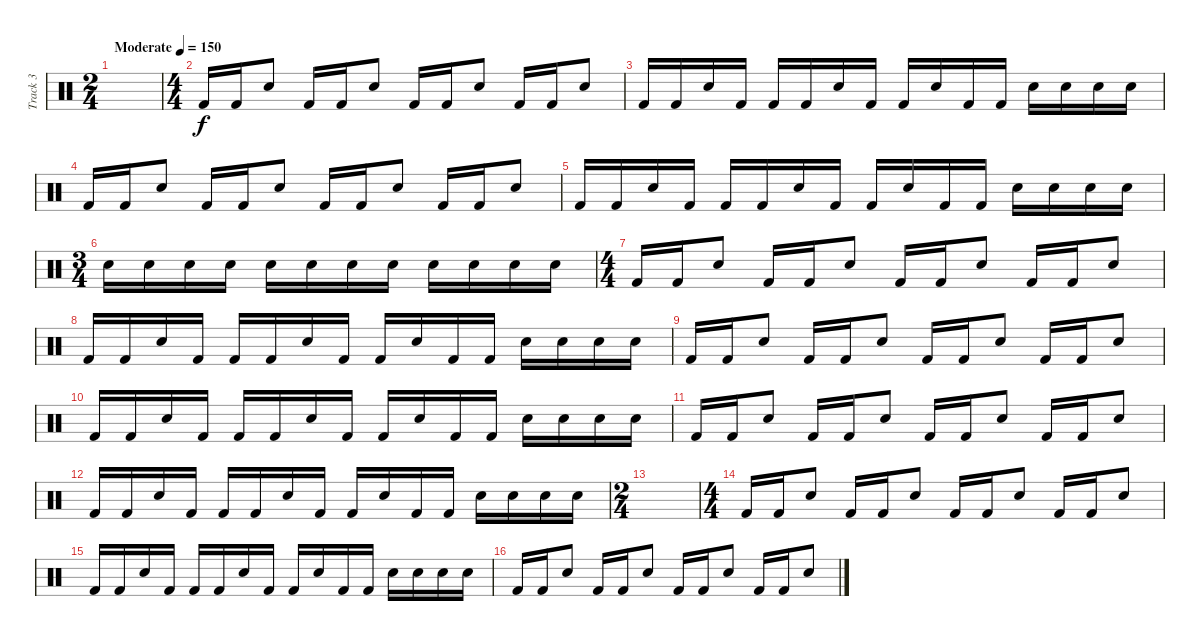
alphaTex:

\track ("Track 3" "Track 3") {instrument percussion}
\staff {score}
\articulation defaults
\ts (2 4)
\tempo (150 "Moderate")
\clef neutral
\ks c
|
\ts (4 4)
"Kick (hit) 2".16 "Kick (hit) 2".16 "Snare (hit) 2".8 "Kick (hit) 2".16 "Kick (hit) 2".16 "Snare (hit) 2".8 "Kick (hit) 2".16 "Kick (hit) 2".16 "Snare (hit) 2".8 "Kick (hit) 2".16 "Kick (hit) 2".16 "Snare (hit) 2".8 |
"Kick (hit) 2".16 "Kick (hit) 2".16 "Snare (hit) 2".16 "Kick (hit) 2".16 "Kick (hit) 2".16 "Kick (hit) 2".16 "Snare (hit) 2".16 "Kick (hit) 2".16 "Kick (hit) 2".16 "Snare (hit) 2".16 "Kick (hit) 2".16 "Kick (hit) 2".16 "Snare (hit) 2".16 "Snare (hit) 2".16 "Snare (hit) 2".16 "Snare (hit) 2".16 |
"Kick (hit) 2".16 "Kick (hit) 2".16 "Snare (hit) 2".8 "Kick (hit) 2".16 "Kick (hit) 2".16 "Snare (hit) 2".8 "Kick (hit) 2".16 "Kick (hit) 2".16 "Snare (hit) 2".8 "Kick (hit) 2".16 "Kick (hit) 2".16 "Snare (hit) 2".8 |
"Kick (hit) 2".16 "Kick (hit) 2".16 "Snare (hit) 2".16 "Kick (hit) 2".16 "Kick (hit) 2".16 "Kick (hit) 2".16 "Snare (hit) 2".16 "Kick (hit) 2".16 "Kick (hit) 2".16 "Snare (hit) 2".16 "Kick (hit) 2".16 "Kick (hit) 2".16 "Snare (hit) 2".16 "Snare (hit) 2".16 "Snare (hit) 2".16 "Snare (hit) 2".16 |
\ts (3 4)
"Snare (hit) 2".16 "Snare (hit) 2".16 "Snare (hit) 2".16 "Snare (hit) 2".16 "Snare (hit) 2".16 "Snare (hit) 2".16 "Snare (hit) 2".16 "Snare (hit) 2".16 "Snare (hit) 2".16 "Snare (hit) 2".16 "Snare (hit) 2".16 "Snare (hit) 2".16 |
\ts (4 4)
"Kick (hit) 2".16 "Kick (hit) 2".16 "Snare (hit) 2".8 "Kick (hit) 2".16 "Kick (hit) 2".16 "Snare (hit) 2".8 "Kick (hit) 2".16 "Kick (hit) 2".16 "Snare (hit) 2".8 "Kick (hit) 2".16 "Kick (hit) 2".16 "Snare (hit) 2".8 |
"Kick (hit) 2".16 "Kick (hit) 2".16 "Snare (hit) 2".16 "Kick (hit) 2".16 "Kick (hit) 2".16 "Kick (hit) 2".16 "Snare (hit) 2".16 "Kick (hit) 2".16 "Kick (hit) 2".16 "Snare (hit) 2".16 "Kick (hit) 2".16 "Kick (hit) 2".16 "Snare (hit) 2".16 "Snare (hit) 2".16 "Snare (hit) 2".16 "Snare (hit) 2".16 |
"Kick (hit) 2".16 "Kick (hit) 2".16 "Snare (hit) 2".8 "Kick (hit) 2".16 "Kick (hit) 2".16 "Snare (hit) 2".8 "Kick (hit) 2".16 "Kick (hit) 2".16 "Snare (hit) 2".8 "Kick (hit) 2".16 "Kick (hit) 2".16 "Snare (hit) 2".8 |
"Kick (hit) 2".16 "Kick (hit) 2".16 "Snare (hit) 2".16 "Kick (hit) 2".16 "Kick (hit) 2".16 "Kick (hit) 2".16 "Snare (hit) 2".16 "Kick (hit) 2".16 "Kick (hit) 2".16 "Snare (hit) 2".16 "Kick (hit) 2".16 "Kick (hit) 2".16 "Snare (hit) 2".16 "Snare (hit) 2".16 "Snare (hit) 2".16 "Snare (hit) 2".16 |
"Kick (hit) 2".16 "Kick (hit) 2".16 "Snare (hit) 2".8 "Kick (hit) 2".16 "Kick (hit) 2".16 "Snare (hit) 2".8 "Kick (hit) 2".16 "Kick (hit) 2".16 "Snare (hit) 2".8 "Kick (hit) 2".16 "Kick (hit) 2".16 "Snare (hit) 2".8 |
"Kick (hit) 2".16 "Kick (hit) 2".16 "Snare (hit) 2".16 "Kick (hit) 2".16 "Kick (hit) 2".16 "Kick (hit) 2".16 "Snare (hit) 2".16 "Kick (hit) 2".16 "Kick (hit) 2".16 "Snare (hit) 2".16 "Kick (hit) 2".16 "Kick (hit) 2".16 "Snare (hit) 2".16 "Snare (hit) 2".16 "Snare (hit) 2".16 "Snare (hit) 2".16 |
\ts (2 4)
|
\ts (4 4)
"Kick (hit) 2".16 "Kick (hit) 2".16 "Snare (hit) 2".8 "Kick (hit) 2".16 "Kick (hit) 2".16 "Snare (hit) 2".8 "Kick (hit) 2".16 "Kick (hit) 2".16 "Snare (hit) 2".8 "Kick (hit) 2".16 "Kick (hit) 2".16 "Snare (hit) 2".8 |
"Kick (hit) 2".16 "Kick (hit) 2".16 "Snare (hit) 2".16 "Kick (hit) 2".16 "Kick (hit) 2".16 "Kick (hit) 2".16 "Snare (hit) 2".16 "Kick (hit) 2".16 "Kick (hit) 2".16 "Snare (hit) 2".16 "Kick (hit) 2".16 "Kick (hit) 2".16 "Snare (hit) 2".16 "Snare (hit) 2".16 "Snare (hit) 2".16 "Snare (hit) 2".16 |
"Kick (hit) 2".16 "Kick (hit) 2".16 "Snare (hit) 2".8 "Kick (hit) 2".16 "Kick (hit) 2".16 "Snare (hit) 2".8 "Kick (hit) 2".16 "Kick (hit) 2".16 "Snare (hit) 2".8 "Kick (hit) 2".16 "Kick (hit) 2".16 "Snare (hit) 2".8
